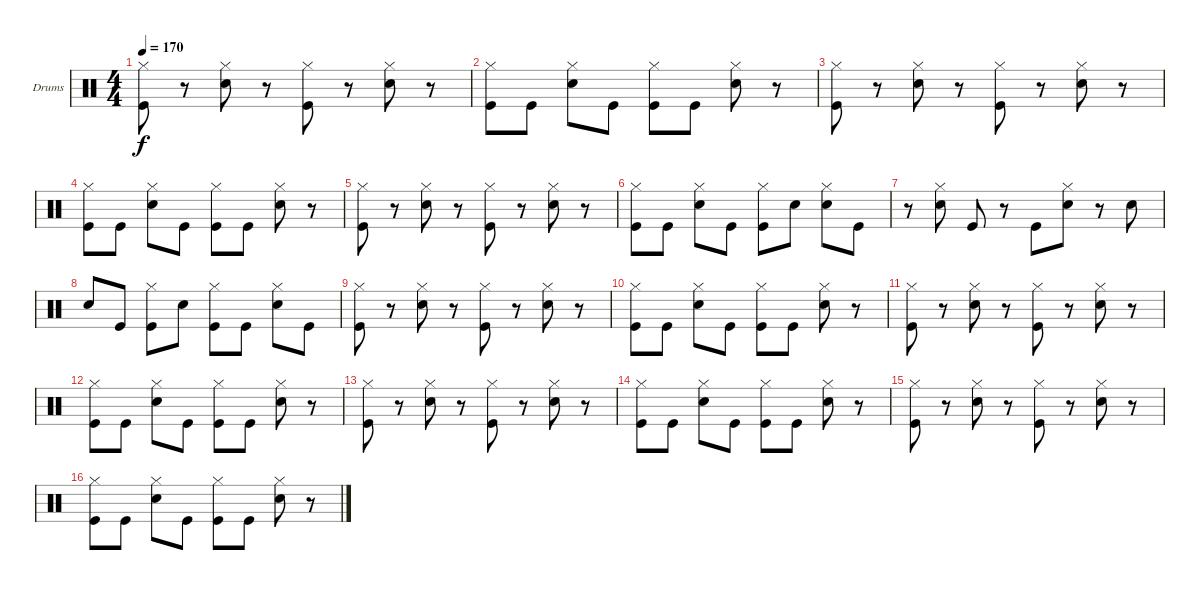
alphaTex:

\bracketExtendMode groupsimilarinstruments
\firstSystemTrackNameOrientation horizontal
\otherSystemsTrackNameOrientation horizontal
\track ("Drumkit" "Drums") {instrument percussion}
\staff {score}
\articulation defaults
\ts (4 4)
\tempo 170
\clef neutral
\ks c
("Hi-Hat (closed)" "Kick (hit)").8{dy f} r.8 ("Hi-Hat (closed)" "Snare (hit) 2").8 r.8 ("Hi-Hat (closed)" "Kick (hit)").8 r.8 ("Hi-Hat (closed)" "Snare (hit) 2").8 r.8 |
("Hi-Hat (closed)" "Kick (hit)").8 "Kick (hit)".8 ("Hi-Hat (closed)" "Snare (hit) 2").8 "Kick (hit)".8 ("Hi-Hat (closed)" "Kick (hit)").8 "Kick (hit)".8 ("Hi-Hat (closed)" "Snare (hit) 2").8 r.8 |
("Hi-Hat (closed)" "Kick (hit)").8 r.8 ("Hi-Hat (closed)" "Snare (hit) 2").8 r.8 ("Hi-Hat (closed)" "Kick (hit)").8 r.8 ("Hi-Hat (closed)" "Snare (hit) 2").8 r.8 |
("Hi-Hat (closed)" "Kick (hit)").8 "Kick (hit)".8 ("Hi-Hat (closed)" "Snare (hit) 2").8 "Kick (hit)".8 ("Hi-Hat (closed)" "Kick (hit)").8 "Kick (hit)".8 ("Hi-Hat (closed)" "Snare (hit) 2").8 r.8 |
("Hi-Hat (closed)" "Kick (hit)").8 r.8 ("Hi-Hat (closed)" "Snare (hit) 2").8 r.8 ("Hi-Hat (closed)" "Kick (hit)").8 r.8 ("Hi-Hat (closed)" "Snare (hit) 2").8 r.8 |
("Hi-Hat (closed)" "Kick (hit)").8 "Kick (hit)".8 ("Hi-Hat (closed)" "Snare (hit) 2").8 "Kick (hit)".8 ("Hi-Hat (closed)" "Kick (hit)").8 "Snare (hit) 2".8 ("Hi-Hat (closed)" "Snare (hit) 2").8 "Kick (hit)".8 |
r.8 ("Hi-Hat (closed)" "Snare (hit) 2").8 "Kick (hit)".8 r.8 "Kick (hit)".8 ("Hi-Hat (closed)" "Snare (hit) 2").8 r.8 "Snare (hit) 2".8 |
"Snare (hit) 2".8 "Kick (hit)".8 ("Hi-Hat (closed)" "Kick (hit)").8 "Snare (hit) 2".8 ("Hi-Hat (closed)" "Kick (hit)").8 "Kick (hit)".8 ("Hi-Hat (closed)" "Snare (hit) 2").8 "Kick (hit)".8 |
("Hi-Hat (closed)" "Kick (hit)").8 r.8 ("Hi-Hat (closed)" "Snare (hit) 2").8 r.8 ("Hi-Hat (closed)" "Kick (hit)").8 r.8 ("Hi-Hat (closed)" "Snare (hit) 2").8 r.8 |
("Hi-Hat (closed)" "Kick (hit)").8 "Kick (hit)".8 ("Hi-Hat (closed)" "Snare (hit) 2").8 "Kick (hit)".8 ("Hi-Hat (closed)" "Kick (hit)").8 "Kick (hit)".8 ("Hi-Hat (closed)" "Snare (hit) 2").8 r.8 |
("Hi-Hat (closed)" "Kick (hit)").8 r.8 ("Hi-Hat (closed)" "Snare (hit) 2").8 r.8 ("Hi-Hat (closed)" "Kick (hit)").8 r.8 ("Hi-Hat (closed)" "Snare (hit) 2").8 r.8 |
("Hi-Hat (closed)" "Kick (hit)").8 "Kick (hit)".8 ("Hi-Hat (closed)" "Snare (hit) 2").8 "Kick (hit)".8 ("Hi-Hat (closed)" "Kick (hit)").8 "Kick (hit)".8 ("Hi-Hat (closed)" "Snare (hit) 2").8 r.8 |
("Hi-Hat (closed)" "Kick (hit)").8 r.8 ("Hi-Hat (closed)" "Snare (hit) 2").8 r.8 ("Hi-Hat (closed)" "Kick (hit)").8 r.8 ("Hi-Hat (closed)" "Snare (hit) 2").8 r.8 |
("Hi-Hat (closed)" "Kick (hit)").8 "Kick (hit)".8 ("Hi-Hat (closed)" "Snare (hit) 2").8 "Kick (hit)".8 ("Hi-Hat (closed)" "Kick (hit)").8 "Kick (hit)".8 ("Hi-Hat (closed)" "Snare (hit) 2").8 r.8 |
("Hi-Hat (closed)" "Kick (hit)").8 r.8 ("Hi-Hat (closed)" "Snare (hit) 2").8 r.8 ("Hi-Hat (closed)" "Kick (hit)").8 r.8 ("Hi-Hat (closed)" "Snare (hit) 2").8 r.8 |
("Hi-Hat (closed)" "Kick (hit)").8 "Kick (hit)".8 ("Hi-Hat (closed)" "Snare (hit) 2").8 "Kick (hit)".8 ("Hi-Hat (closed)" "Kick (hit)").8 "Kick (hit)".8 ("Hi-Hat (closed)" "Snare (hit) 2").8 r.8
